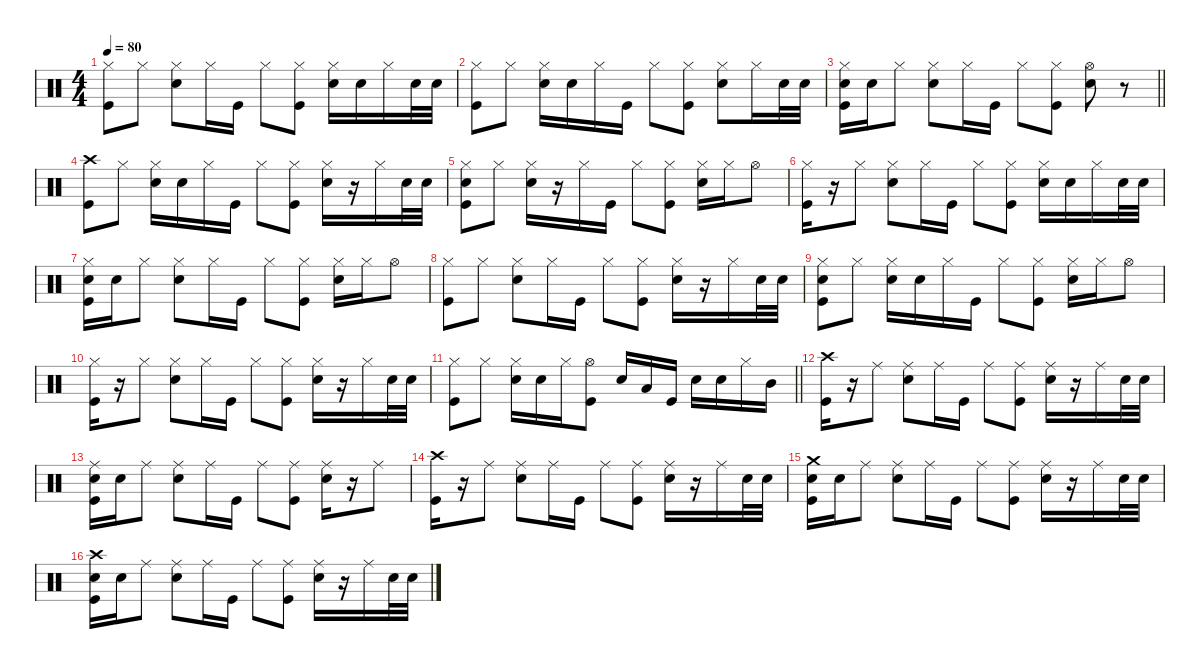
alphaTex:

\defaultSystemsLayout 4
\hideDynamics
\bracketExtendMode nobrackets
\singleTrackTrackNamePolicy hidden
\multiTrackTrackNamePolicy hidden
\firstSystemTrackNameMode fullname
\firstSystemTrackNameOrientation horizontal
\otherSystemsTrackNameOrientation horizontal
\track ("Percussion" "drm.") {defaultSystemsLayout 4 instrument percussion}
\staff {score}
\articulation defaults
\ts (4 4)
\tempo 80
\clef neutral
\ks c
("Hi-Hat (closed)" "Kick (hit)").8{dy f beam Down} "Hi-Hat (closed)".8{beam Down} ("Hi-Hat (closed)" "Snare (hit) 2").8{beam Down} "Hi-Hat (closed)".16{beam Down} "Kick (hit)".16{beam Down} "Hi-Hat (closed)".8{beam Down} ("Hi-Hat (closed)" "Kick (hit)").8{beam Down} ("Hi-Hat (closed)" "Snare (hit) 2").16{beam Down} "Snare (hit) 2".16{dy p beam Down} "Hi-Hat (closed)".16{dy f beam Down} "Snare (hit) 2".32{dy p beam Down} "Snare (hit) 2".32{beam Down} |
("Hi-Hat (closed)" "Kick (hit)").8{dy f beam Down} "Hi-Hat (closed)".8{beam Down} ("Hi-Hat (closed)" "Snare (hit) 2").16{beam Down} "Snare (hit) 2".16{dy p beam Down} "Hi-Hat (closed)".16{dy f beam Down} "Kick (hit)".16{beam Down} "Hi-Hat (closed)".8{beam Down} ("Hi-Hat (closed)" "Kick (hit)").8{beam Down} ("Hi-Hat (closed)" "Snare (hit) 2").8{beam Down} "Hi-Hat (closed)".16{beam Down} "Snare (hit) 2".32{dy p beam Down} "Snare (hit) 2".32{beam Down} |
\barLineRight lightlight
("Hi-Hat (closed)" "Snare (hit) 2" "Kick (hit)").16{dy f beam Down} "Snare (hit) 2".16{dy pp beam Down} "Hi-Hat (closed)".8{dy f beam Down} ("Hi-Hat (closed)" "Snare (hit) 2").8{beam Down} "Hi-Hat (closed)".16{beam Down} "Kick (hit)".16{beam Down} "Hi-Hat (closed)".8{beam Down} ("Hi-Hat (closed)" "Kick (hit)").8{beam Down} ("Hi-Hat (open)" "Snare (hit) 2").8{beam Down} r.8{beam Down} |
("Crash high (hit)" "Kick (hit)").8{beam Down} "Hi-Hat (closed)".8{dy mp beam Down} ("Hi-Hat (closed)" "Snare (hit) 2").16{dy f beam Down} "Snare (hit) 2".16{dy p beam Down} "Hi-Hat (closed)".16{dy f beam Down} "Kick (hit)".16{beam Down} "Hi-Hat (closed)".8{beam Down} ("Hi-Hat (closed)" "Kick (hit)").8{beam Down} ("Hi-Hat (closed)" "Snare (hit) 2").16{beam Down} r.16{beam Down} "Hi-Hat (closed)".16{beam Down} "Snare (hit) 2".32{dy p beam Down} "Snare (hit) 2".32{beam Down} |
("Hi-Hat (closed)" "Snare (hit) 2" "Kick (hit)").8{dy f beam Down} "Hi-Hat (closed)".8{beam Down} ("Hi-Hat (closed)" "Snare (hit) 2").16{beam Down} r.16{beam Down} "Hi-Hat (closed)".16{beam Down} "Kick (hit)".16{beam Down} "Hi-Hat (closed)".8{beam Down} ("Hi-Hat (closed)" "Kick (hit)").8{beam Down} ("Hi-Hat (closed)" "Snare (hit) 2").16{beam Down} "Hi-Hat (closed)".16{dy mp beam Down} "Hi-Hat (open)".8{dy f beam Down} |
("Hi-Hat (closed)" "Kick (hit)").16{beam Down} r.16{beam Down} "Hi-Hat (closed)".8{beam Down} ("Hi-Hat (closed)" "Snare (hit) 2").8{beam Down} "Hi-Hat (closed)".16{beam Down} "Kick (hit)".16{beam Down} "Hi-Hat (closed)".8{beam Down} ("Hi-Hat (closed)" "Kick (hit)").8{beam Down} ("Hi-Hat (closed)" "Snare (hit) 2").16{beam Down} "Snare (hit) 2".16{dy p beam Down} "Hi-Hat (closed)".16{dy f beam Down} "Snare (hit) 2".32{dy p beam Down} "Snare (hit) 2".32{beam Down} |
("Hi-Hat (closed)" "Snare (hit) 2" "Kick (hit)").16{dy f beam Down} "Snare (hit) 2".16{dy pp beam Down} "Hi-Hat (closed)".8{dy f beam Down} ("Hi-Hat (closed)" "Snare (hit) 2").8{beam Down} "Hi-Hat (closed)".16{beam Down} "Kick (hit)".16{beam Down} "Hi-Hat (closed)".8{beam Down} ("Hi-Hat (closed)" "Kick (hit)").8{beam Down} ("Hi-Hat (closed)" "Snare (hit) 2").16{beam Down} "Hi-Hat (closed)".16{dy mp beam Down} "Hi-Hat (open)".8{dy f beam Down} |
("Hi-Hat (closed)" "Kick (hit)").8{beam Down} "Hi-Hat (closed)".8{dy mp beam Down} ("Hi-Hat (closed)" "Snare (hit) 2").8{dy f beam Down} "Hi-Hat (closed)".16{beam Down} "Kick (hit)".16{beam Down} "Hi-Hat (closed)".8{beam Down} ("Hi-Hat (closed)" "Kick (hit)").8{beam Down} ("Hi-Hat (closed)" "Snare (hit) 2").16{beam Down} r.16{beam Down} "Hi-Hat (closed)".16{beam Down} "Snare (hit) 2".32{dy p beam Down} "Snare (hit) 2".32{beam Down} |
("Hi-Hat (closed)" "Snare (hit) 2" "Kick (hit)").8{dy f beam Down} "Hi-Hat (closed)".8{beam Down} ("Hi-Hat (closed)" "Snare (hit) 2").16{beam Down} "Snare (hit) 2".16{dy p beam Down} "Hi-Hat (closed)".16{dy f beam Down} "Kick (hit)".16{beam Down} "Hi-Hat (closed)".8{beam Down} ("Hi-Hat (closed)" "Kick (hit)").8{beam Down} ("Hi-Hat (closed)" "Snare (hit) 2").16{beam Down} "Hi-Hat (closed)".16{dy mp beam Down} "Hi-Hat (open)".8{dy f beam Down} |
("Hi-Hat (closed)" "Kick (hit)").16{beam Down} r.16{beam Down} "Hi-Hat (closed)".8{beam Down} ("Hi-Hat (closed)" "Snare (hit) 2").8{beam Down} "Hi-Hat (closed)".16{beam Down} "Kick (hit)".16{beam Down} "Hi-Hat (closed)".8{beam Down} ("Hi-Hat (closed)" "Kick (hit)").8{beam Down} ("Hi-Hat (closed)" "Snare (hit) 2").16{beam Down} r.16{beam Down} "Hi-Hat (closed)".16{beam Down} "Snare (hit) 2".32{dy p beam Down} "Snare (hit) 2".32{beam Down} |
\barLineRight lightlight
("Hi-Hat (closed)" "Kick (hit)").8{dy f beam Down} "Hi-Hat (closed)".8{beam Down} ("Hi-Hat (closed)" "Snare (hit) 2").16{beam Down} "Snare (hit) 2".16{dy p beam Down} "Hi-Hat (closed)".16{dy f beam Down} ("Hi-Hat (open)" "Kick (hit)").8{beam Down} "Snare (hit) 2".16{beam Up} "Low Tom (hit)".16{dy mp beam Up} "Kick (hit)".16{dy mf beam Up} "Snare (hit) 2".16{dy f beam Down} "Snare (hit) 2".16{dy p beam Down} "Hi-Hat (closed)".16{dy f beam Down} "Mid Tom (hit)".16{beam Down} |
("Crash high (hit)" "Kick (hit)").16{beam Down} r.16{beam Down} "Ride (middle)".8{beam Down} ("Ride (middle)" "Snare (hit) 2").8{beam Down} "Ride (middle)".16{beam Down} "Kick (hit)".16{beam Down} "Ride (middle)".8{beam Down} ("Ride (middle)" "Kick (hit)").8{beam Down} ("Ride (middle)" "Snare (hit) 2").16{beam Down} r.16{beam Down} "Ride (middle)".16{beam Down} "Snare (hit) 2".32{dy p beam Down} "Snare (hit) 2".32{beam Down} |
("Ride (middle)" "Snare (hit) 2" "Kick (hit)").16{dy f beam Down} "Snare (hit) 2".16{dy p beam Down} "Ride (middle)".8{dy f beam Down} ("Ride (middle)" "Snare (hit) 2").8{beam Down} "Ride (middle)".16{beam Down} "Kick (hit)".16{beam Down} "Ride (middle)".8{beam Down} ("Ride (middle)" "Kick (hit)").8{beam Down} ("Ride (middle)" "Snare (hit) 2").16{beam Down} r.16{beam Down} "Ride (middle)".8{beam Down} |
("Crash high (hit)" "Kick (hit)").16{beam Down} r.16{beam Down} "Ride (middle)".8{beam Down} ("Ride (middle)" "Snare (hit) 2").8{beam Down} "Ride (middle)".16{beam Down} "Kick (hit)".16{beam Down} "Ride (middle)".8{beam Down} ("Ride (middle)" "Kick (hit)").8{beam Down} ("Ride (middle)" "Snare (hit) 2").16{beam Down} r.16{beam Down} "Ride (middle)".16{beam Down} "Snare (hit) 2".32{dy p beam Down} "Snare (hit) 2".32{beam Down} |
("Crash medium (hit)" "Snare (hit) 2" "Kick (hit)").16{dy f beam Down} "Snare (hit) 2".16{dy p beam Down} "Ride (middle)".8{dy f beam Down} ("Ride (middle)" "Snare (hit) 2").8{beam Down} "Ride (middle)".16{beam Down} "Kick (hit)".16{beam Down} "Ride (middle)".8{beam Down} ("Ride (middle)" "Kick (hit)").8{beam Down} ("Ride (middle)" "Snare (hit) 2").16{beam Down} r.16{beam Down} "Ride (middle)".16{beam Down} "Snare (hit) 2".32{dy p beam Down} "Snare (hit) 2".32{beam Down} |
("Crash high (hit)" "Snare (hit) 2" "Kick (hit)").16{dy f beam Down} "Snare (hit) 2".16{dy p beam Down} "Ride (middle)".8{dy f beam Down} ("Ride (middle)" "Snare (hit) 2").8{beam Down} "Ride (middle)".16{beam Down} "Kick (hit)".16{beam Down} "Ride (middle)".8{beam Down} ("Ride (middle)" "Kick (hit)").8{beam Down} ("Ride (middle)" "Snare (hit) 2").16{beam Down} r.16{beam Down} "Ride (middle)".16{beam Down} "Snare (hit) 2".32{dy p beam Down} "Snare (hit) 2".32{beam Down}
